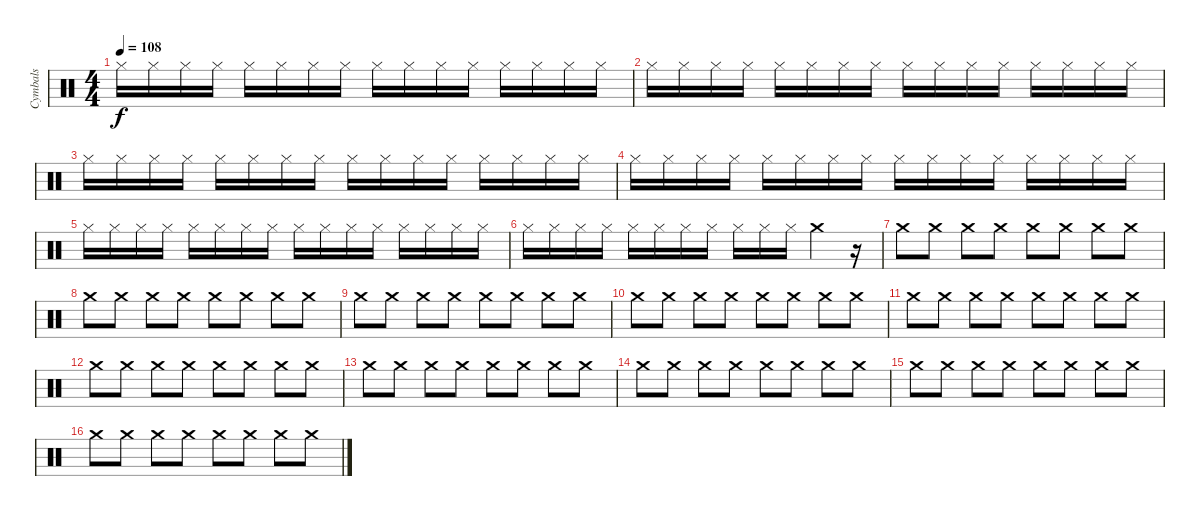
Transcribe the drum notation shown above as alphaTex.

\track ("Cymbals" "Cymbals") {instrument percussion}
\staff {score}
\articulation defaults
\ts (4 4)
\tempo 108
\clef neutral
\ks c "Hi-Hat (closed)".16{dy f} "Hi-Hat (closed)".16 "Hi-Hat (closed)".16 "Hi-Hat (closed)".16 "Hi-Hat (closed)".16 "Hi-Hat (closed)".16 "Hi-Hat (closed)".16 "Hi-Hat (closed)".16 "Hi-Hat (closed)".16 "Hi-Hat (closed)".16 "Hi-Hat (closed)".16 "Hi-Hat (closed)".16 "Hi-Hat (closed)".16 "Hi-Hat (closed)".16 "Hi-Hat (closed)".16 "Hi-Hat (closed)".16
|
"Hi-Hat (closed)".16 "Hi-Hat (closed)".16 "Hi-Hat (closed)".16 "Hi-Hat (closed)".16 "Hi-Hat (closed)".16 "Hi-Hat (closed)".16 "Hi-Hat (closed)".16 "Hi-Hat (closed)".16 "Hi-Hat (closed)".16 "Hi-Hat (closed)".16 "Hi-Hat (closed)".16 "Hi-Hat (closed)".16 "Hi-Hat (closed)".16 "Hi-Hat (closed)".16 "Hi-Hat (closed)".16 "Hi-Hat (closed)".16 |
"Hi-Hat (closed)".16 "Hi-Hat (closed)".16 "Hi-Hat (closed)".16 "Hi-Hat (closed)".16 "Hi-Hat (closed)".16 "Hi-Hat (closed)".16 "Hi-Hat (closed)".16 "Hi-Hat (closed)".16 "Hi-Hat (closed)".16 "Hi-Hat (closed)".16 "Hi-Hat (closed)".16 "Hi-Hat (closed)".16 "Hi-Hat (closed)".16 "Hi-Hat (closed)".16 "Hi-Hat (closed)".16 "Hi-Hat (closed)".16 |
"Hi-Hat (closed)".16 "Hi-Hat (closed)".16 "Hi-Hat (closed)".16 "Hi-Hat (closed)".16 "Hi-Hat (closed)".16 "Hi-Hat (closed)".16 "Hi-Hat (closed)".16 "Hi-Hat (closed)".16 "Hi-Hat (closed)".16 "Hi-Hat (closed)".16 "Hi-Hat (closed)".16 "Hi-Hat (closed)".16 "Hi-Hat (closed)".16 "Hi-Hat (closed)".16 "Hi-Hat (closed)".16 "Hi-Hat (closed)".16 |
"Hi-Hat (closed)".16 "Hi-Hat (closed)".16 "Hi-Hat (closed)".16 "Hi-Hat (closed)".16 "Hi-Hat (closed)".16 "Hi-Hat (closed)".16 "Hi-Hat (closed)".16 "Hi-Hat (closed)".16 "Hi-Hat (closed)".16 "Hi-Hat (closed)".16 "Hi-Hat (closed)".16 "Hi-Hat (closed)".16 "Hi-Hat (closed)".16 "Hi-Hat (closed)".16 "Hi-Hat (closed)".16 "Hi-Hat (closed)".16 |
"Hi-Hat (closed)".16 "Hi-Hat (closed)".16 "Hi-Hat (closed)".16 "Hi-Hat (closed)".16 "Hi-Hat (closed)".16 "Hi-Hat (closed)".16 "Hi-Hat (closed)".16 "Hi-Hat (closed)".16 "Hi-Hat (closed)".16 "Hi-Hat (closed)".16 "Hi-Hat (closed)".16 "Crash medium (hit)".4 r.16 |
"Crash medium (hit)".8 "Crash medium (hit)".8 "Crash medium (hit)".8 "Crash medium (hit)".8 "Crash medium (hit)".8 "Crash medium (hit)".8 "Crash medium (hit)".8 "Crash medium (hit)".8 |
"Crash medium (hit)".8 "Crash medium (hit)".8 "Crash medium (hit)".8 "Crash medium (hit)".8 "Crash medium (hit)".8 "Crash medium (hit)".8 "Crash medium (hit)".8 "Crash medium (hit)".8 |
"Crash medium (hit)".8 "Crash medium (hit)".8 "Crash medium (hit)".8 "Crash medium (hit)".8 "Crash medium (hit)".8 "Crash medium (hit)".8 "Crash medium (hit)".8 "Crash medium (hit)".8 |
"Crash medium (hit)".8 "Crash medium (hit)".8 "Crash medium (hit)".8 "Crash medium (hit)".8 "Crash medium (hit)".8 "Crash medium (hit)".8 "Crash medium (hit)".8 "Crash medium (hit)".8 |
"Crash medium (hit)".8 "Crash medium (hit)".8 "Crash medium (hit)".8 "Crash medium (hit)".8 "Crash medium (hit)".8 "Crash medium (hit)".8 "Crash medium (hit)".8 "Crash medium (hit)".8 |
"Crash medium (hit)".8 "Crash medium (hit)".8 "Crash medium (hit)".8 "Crash medium (hit)".8 "Crash medium (hit)".8 "Crash medium (hit)".8 "Crash medium (hit)".8 "Crash medium (hit)".8 |
"Crash medium (hit)".8 "Crash medium (hit)".8 "Crash medium (hit)".8 "Crash medium (hit)".8 "Crash medium (hit)".8 "Crash medium (hit)".8 "Crash medium (hit)".8 "Crash medium (hit)".8 |
"Crash medium (hit)".8 "Crash medium (hit)".8 "Crash medium (hit)".8 "Crash medium (hit)".8 "Crash medium (hit)".8 "Crash medium (hit)".8 "Crash medium (hit)".8 "Crash medium (hit)".8 |
"Crash medium (hit)".8 "Crash medium (hit)".8 "Crash medium (hit)".8 "Crash medium (hit)".8 "Crash medium (hit)".8 "Crash medium (hit)".8 "Crash medium (hit)".8 "Crash medium (hit)".8 |
"Crash medium (hit)".8 "Crash medium (hit)".8 "Crash medium (hit)".8 "Crash medium (hit)".8 "Crash medium (hit)".8 "Crash medium (hit)".8 "Crash medium (hit)".8 "Crash medium (hit)".8
